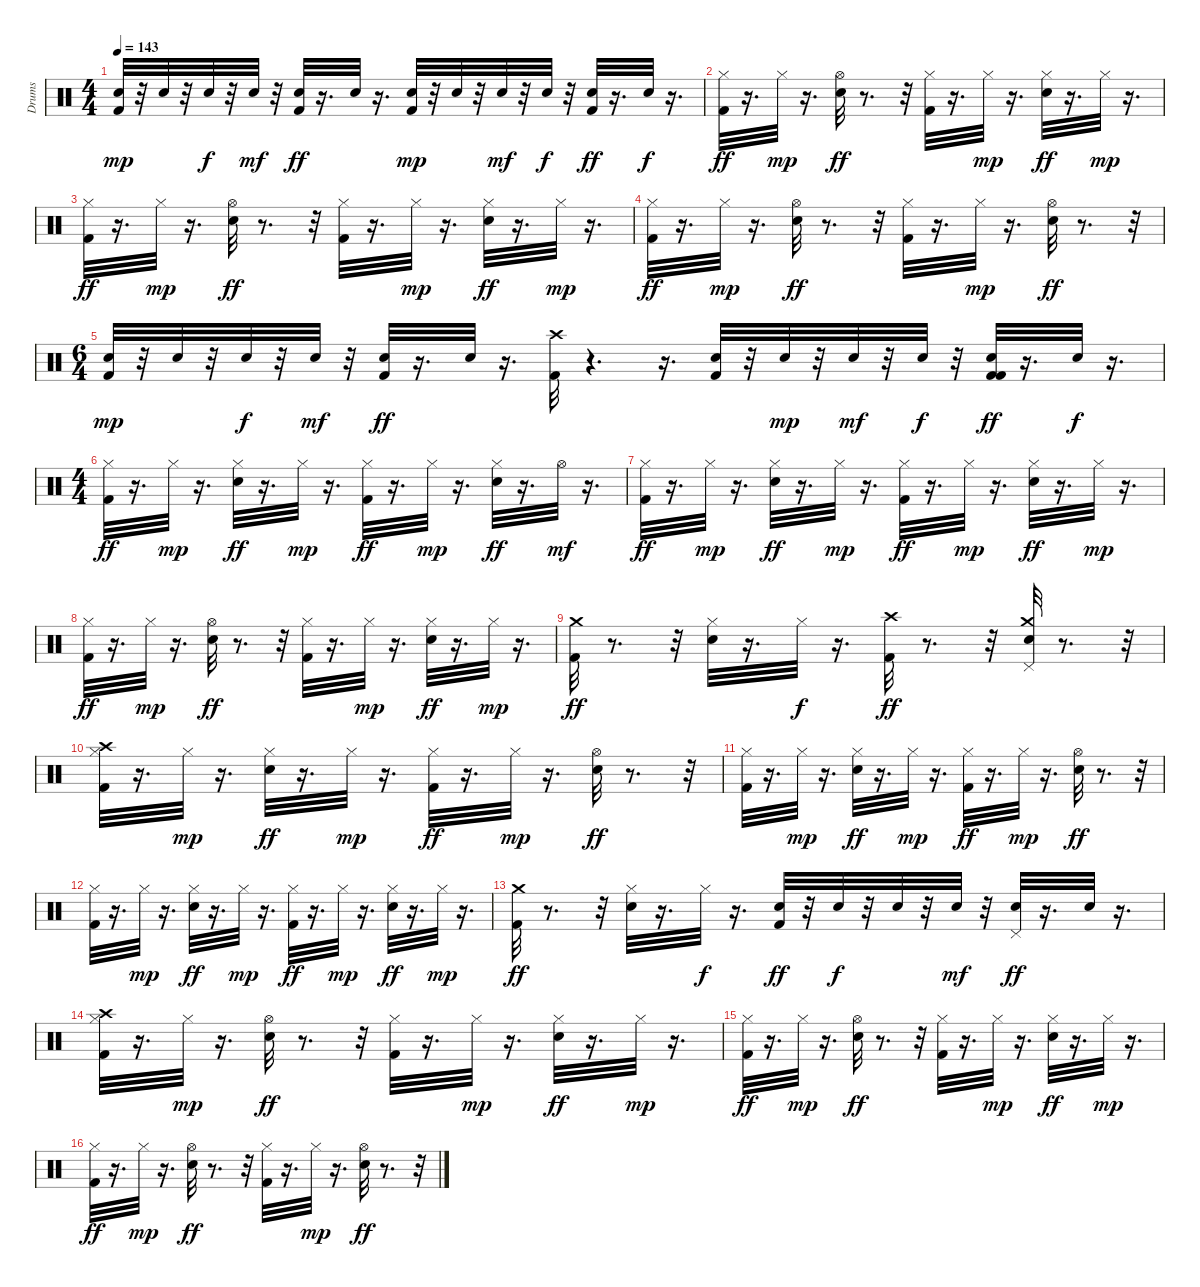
\track ("Drums" "Drums") {instrument percussion}
\staff {score}
\articulation defaults
\ts (4 4)
\tempo 143
\clef neutral
\ks c
("Kick (hit) 2" "Snare (hit) 2").32{dy mp} r.32 "Snare (hit) 2".32 r.32 "Snare (hit) 2".32{dy f} r.32 "Snare (hit) 2".32{dy mf} r.32 ("Kick (hit) 2" "Snare (hit) 2").32{dy ff} r.16{d} "Snare (hit) 2".32 r.16{d} ("Kick (hit) 2" "Snare (hit) 2").32{dy mp} r.32 "Snare (hit) 2".32 r.32 "Snare (hit) 2".32{dy mf} r.32 "Snare (hit) 2".32{dy f} r.32 ("Kick (hit) 2" "Snare (hit) 2").32{dy ff} r.16{d} "Snare (hit) 2".32{dy f} r.16{d} |
("Kick (hit) 2" "Hi-Hat (closed)").32{dy ff} r.16{d} "Hi-Hat (closed)".32{dy mp} r.16{d} ("Snare (hit) 2" "Hi-Hat (open)").32{dy ff} r.8{d} r.32 ("Kick (hit) 2" "Hi-Hat (closed)").32 r.16{d} "Hi-Hat (closed)".32{dy mp} r.16{d} ("Snare (hit) 2" "Hi-Hat (closed)").32{dy ff} r.16{d} "Hi-Hat (closed)".32{dy mp} r.16{d} |
("Kick (hit) 2" "Hi-Hat (closed)").32{dy ff} r.16{d} "Hi-Hat (closed)".32{dy mp} r.16{d} ("Snare (hit) 2" "Hi-Hat (open)").32{dy ff} r.8{d} r.32 ("Kick (hit) 2" "Hi-Hat (closed)").32 r.16{d} "Hi-Hat (closed)".32{dy mp} r.16{d} ("Snare (hit) 2" "Hi-Hat (closed)").32{dy ff} r.16{d} "Hi-Hat (closed)".32{dy mp} r.16{d} |
("Kick (hit) 2" "Hi-Hat (closed)").32{dy ff} r.16{d} "Hi-Hat (closed)".32{dy mp} r.16{d} ("Snare (hit) 2" "Hi-Hat (open)").32{dy ff} r.8{d} r.32 ("Kick (hit) 2" "Hi-Hat (closed)").32 r.16{d} "Hi-Hat (closed)".32{dy mp} r.16{d} ("Snare (hit) 2" "Hi-Hat (open)").32{dy ff} r.8{d} r.32 |
\ts (6 4)
("Kick (hit) 2" "Snare (hit) 2").32{dy mp} r.32 "Snare (hit) 2".32 r.32 "Snare (hit) 2".32{dy f} r.32 "Snare (hit) 2".32{dy mf} r.32 ("Snare (hit) 2" "Kick (hit) 2").32{dy ff} r.16{d} "Snare (hit) 2".32 r.16{d} ("Kick (hit) 2" "Crash high (hit)").32 r.4{d} r.16{d} ("Snare (hit) 2" "Kick (hit) 2").32 r.32 "Snare (hit) 2".32{dy mp} r.32 "Snare (hit) 2".32{dy mf} r.32 "Snare (hit) 2".32{dy f} r.32 ("Kick (hit) 2" "Snare (hit) 2" "Kick (hit) 2").32{dy ff} r.16{d} "Snare (hit) 2".32{dy f} r.16{d} |
\ts (4 4)
("Kick (hit) 2" "Hi-Hat (closed)").32{dy ff} r.16{d} "Hi-Hat (closed)".32{dy mp} r.16{d} ("Snare (hit) 2" "Hi-Hat (closed)").32{dy ff} r.16{d} "Hi-Hat (closed)".32{dy mp} r.16{d} ("Kick (hit) 2" "Hi-Hat (closed)").32{dy ff} r.16{d} "Hi-Hat (closed)".32{dy mp} r.16{d} ("Snare (hit) 2" "Hi-Hat (closed)").32{dy ff} r.16{d} "Hi-Hat (open)".32{dy mf} r.16{d} |
("Kick (hit) 2" "Hi-Hat (closed)").32{dy ff} r.16{d} "Hi-Hat (closed)".32{dy mp} r.16{d} ("Snare (hit) 2" "Hi-Hat (closed)").32{dy ff} r.16{d} "Hi-Hat (closed)".32{dy mp} r.16{d} ("Kick (hit) 2" "Hi-Hat (closed)").32{dy ff} r.16{d} "Hi-Hat (closed)".32{dy mp} r.16{d} ("Snare (hit) 2" "Hi-Hat (closed)").32{dy ff} r.16{d} "Hi-Hat (closed)".32{dy mp} r.16{d} |
("Kick (hit) 2" "Hi-Hat (closed)").32{dy ff} r.16{d} "Hi-Hat (closed)".32{dy mp} r.16{d} ("Snare (hit) 2" "Hi-Hat (open)").32{dy ff} r.8{d} r.32 ("Kick (hit) 2" "Hi-Hat (closed)").32 r.16{d} "Hi-Hat (closed)".32{dy mp} r.16{d} ("Snare (hit) 2" "Hi-Hat (closed)").32{dy ff} r.16{d} "Hi-Hat (closed)".32{dy mp} r.16{d} |
("Kick (hit) 2" "Crash medium (hit)").32{dy ff} r.8{d} r.32 ("Snare (hit) 2" "Hi-Hat (closed)").32 r.16{d} "Hi-Hat (closed)".32{dy f} r.16{d} ("Kick (hit) 2" "Crash high (hit)").32{dy ff} r.8{d} r.32 ("Crash medium (hit)" "Snare (hit) 2" "Pedal Hi-Hat (hit)").32 r.8{d} r.32 |
("Kick (hit) 2" "Crash high (hit)" "Hi-Hat (closed)").32 r.16{d} "Hi-Hat (closed)".32{dy mp} r.16{d} ("Snare (hit) 2" "Hi-Hat (closed)").32{dy ff} r.16{d} "Hi-Hat (closed)".32{dy mp} r.16{d} ("Kick (hit) 2" "Hi-Hat (closed)").32{dy ff} r.16{d} "Hi-Hat (closed)".32{dy mp} r.16{d} ("Snare (hit) 2" "Hi-Hat (open)").32{dy ff} r.8{d} r.32 |
("Kick (hit) 2" "Hi-Hat (closed)").32 r.16{d} "Hi-Hat (closed)".32{dy mp} r.16{d} ("Snare (hit) 2" "Hi-Hat (closed)").32{dy ff} r.16{d} "Hi-Hat (closed)".32{dy mp} r.16{d} ("Kick (hit) 2" "Hi-Hat (closed)").32{dy ff} r.16{d} "Hi-Hat (closed)".32{dy mp} r.16{d} ("Snare (hit) 2" "Hi-Hat (open)").32{dy ff} r.8{d} r.32 |
("Kick (hit) 2" "Hi-Hat (closed)").32 r.16{d} "Hi-Hat (closed)".32{dy mp} r.16{d} ("Snare (hit) 2" "Hi-Hat (closed)").32{dy ff} r.16{d} "Hi-Hat (closed)".32{dy mp} r.16{d} ("Kick (hit) 2" "Hi-Hat (closed)").32{dy ff} r.16{d} "Hi-Hat (closed)".32{dy mp} r.16{d} ("Snare (hit) 2" "Hi-Hat (closed)").32{dy ff} r.16{d} "Hi-Hat (closed)".32{dy mp} r.16{d} |
("Kick (hit) 2" "Crash medium (hit)").32{dy ff} r.8{d} r.32 ("Snare (hit) 2" "Hi-Hat (closed)").32 r.16{d} "Hi-Hat (closed)".32{dy f} r.16{d} ("Kick (hit) 2" "Snare (hit) 2").32{dy ff} r.32 "Snare (hit) 2".32{dy f} r.32 "Snare (hit) 2".32 r.32 "Snare (hit) 2".32{dy mf} r.32 ("Snare (hit) 2" "Pedal Hi-Hat (hit)").32{dy ff} r.16{d} "Snare (hit) 2".32 r.16{d} |
("Kick (hit) 2" "Crash high (hit)" "Hi-Hat (closed)").32 r.16{d} "Hi-Hat (closed)".32{dy mp} r.16{d} ("Snare (hit) 2" "Hi-Hat (open)").32{dy ff} r.8{d} r.32 ("Kick (hit) 2" "Hi-Hat (closed)").32 r.16{d} "Hi-Hat (closed)".32{dy mp} r.16{d} ("Snare (hit) 2" "Hi-Hat (closed)").32{dy ff} r.16{d} "Hi-Hat (closed)".32{dy mp} r.16{d} |
("Kick (hit) 2" "Hi-Hat (closed)").32{dy ff} r.16{d} "Hi-Hat (closed)".32{dy mp} r.16{d} ("Snare (hit) 2" "Hi-Hat (open)").32{dy ff} r.8{d} r.32 ("Kick (hit) 2" "Hi-Hat (closed)").32 r.16{d} "Hi-Hat (closed)".32{dy mp} r.16{d} ("Snare (hit) 2" "Hi-Hat (closed)").32{dy ff} r.16{d} "Hi-Hat (closed)".32{dy mp} r.16{d} |
("Kick (hit) 2" "Hi-Hat (closed)").32{dy ff} r.16{d} "Hi-Hat (closed)".32{dy mp} r.16{d} ("Snare (hit) 2" "Hi-Hat (open)").32{dy ff} r.8{d} r.32 ("Kick (hit) 2" "Hi-Hat (closed)").32 r.16{d} "Hi-Hat (closed)".32{dy mp} r.16{d} ("Snare (hit) 2" "Hi-Hat (open)").32{dy ff} r.8{d} r.32
